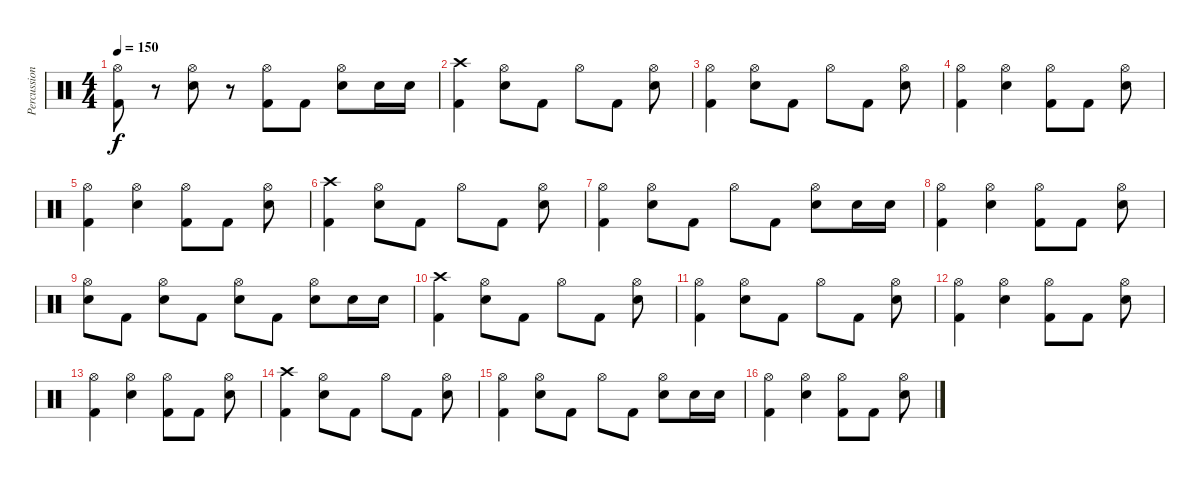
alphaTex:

\track ("Percussion" "Percussion") {instrument percussion}
\staff {score}
\articulation defaults
\ts (4 4)
\tempo 150
\clef neutral
\ks c
("Hi-Hat (open)" "Kick (hit) 2").8{dy f} r.8 ("Hi-Hat (open)" "Electric Snare (hit)").8 r.8 ("Hi-Hat (open)" "Kick (hit) 2").8 "Kick (hit) 2".8 ("Hi-Hat (open)" "Electric Snare (hit)").8 "Electric Snare (hit)".16 "Electric Snare (hit)".16 |
("Crash high (hit)" "Kick (hit) 2").4 ("Hi-Hat (open)" "Electric Snare (hit)").8 "Kick (hit) 2".8 "Hi-Hat (open)".8 "Kick (hit) 2".8 ("Hi-Hat (open)" "Electric Snare (hit)").8 |
("Hi-Hat (open)" "Kick (hit) 2").4 ("Hi-Hat (open)" "Electric Snare (hit)").8 "Kick (hit) 2".8 "Hi-Hat (open)".8 "Kick (hit) 2".8 ("Hi-Hat (open)" "Electric Snare (hit)").8 |
("Hi-Hat (open)" "Kick (hit) 2").4 ("Hi-Hat (open)" "Electric Snare (hit)").4 ("Hi-Hat (open)" "Kick (hit) 2").8 "Kick (hit) 2".8 ("Hi-Hat (open)" "Electric Snare (hit)").8 |
("Hi-Hat (open)" "Kick (hit) 2").4 ("Hi-Hat (open)" "Electric Snare (hit)").4 ("Hi-Hat (open)" "Kick (hit) 2").8 "Kick (hit) 2".8 ("Hi-Hat (open)" "Electric Snare (hit)").8 |
("Crash high (hit)" "Kick (hit) 2").4 ("Hi-Hat (open)" "Electric Snare (hit)").8 "Kick (hit) 2".8 "Hi-Hat (open)".8 "Kick (hit) 2".8 ("Hi-Hat (open)" "Electric Snare (hit)").8 |
("Hi-Hat (open)" "Kick (hit) 2").4 ("Hi-Hat (open)" "Electric Snare (hit)").8 "Kick (hit) 2".8 "Hi-Hat (open)".8 "Kick (hit) 2".8 ("Hi-Hat (open)" "Electric Snare (hit)").8 "Electric Snare (hit)".16 "Electric Snare (hit)".16 |
("Hi-Hat (open)" "Kick (hit) 2").4 ("Hi-Hat (open)" "Electric Snare (hit)").4 ("Hi-Hat (open)" "Kick (hit) 2").8 "Kick (hit) 2".8 ("Hi-Hat (open)" "Electric Snare (hit)").8 |
("Hi-Hat (open)" "Electric Snare (hit)").8 "Kick (hit) 2".8 ("Hi-Hat (open)" "Electric Snare (hit)").8 "Kick (hit) 2".8 ("Hi-Hat (open)" "Electric Snare (hit)").8 "Kick (hit) 2".8 ("Hi-Hat (open)" "Electric Snare (hit)").8 "Electric Snare (hit)".16 "Electric Snare (hit)".16 |
("Crash high (hit)" "Kick (hit) 2").4 ("Hi-Hat (open)" "Electric Snare (hit)").8 "Kick (hit) 2".8 "Hi-Hat (open)".8 "Kick (hit) 2".8 ("Hi-Hat (open)" "Electric Snare (hit)").8 |
("Hi-Hat (open)" "Kick (hit) 2").4 ("Hi-Hat (open)" "Electric Snare (hit)").8 "Kick (hit) 2".8 "Hi-Hat (open)".8 "Kick (hit) 2".8 ("Hi-Hat (open)" "Electric Snare (hit)").8 |
("Hi-Hat (open)" "Kick (hit) 2").4 ("Hi-Hat (open)" "Electric Snare (hit)").4 ("Hi-Hat (open)" "Kick (hit) 2").8 "Kick (hit) 2".8 ("Hi-Hat (open)" "Electric Snare (hit)").8 |
("Hi-Hat (open)" "Kick (hit) 2").4 ("Hi-Hat (open)" "Electric Snare (hit)").4 ("Hi-Hat (open)" "Kick (hit) 2").8 "Kick (hit) 2".8 ("Hi-Hat (open)" "Electric Snare (hit)").8 |
("Crash high (hit)" "Kick (hit) 2").4 ("Hi-Hat (open)" "Electric Snare (hit)").8 "Kick (hit) 2".8 "Hi-Hat (open)".8 "Kick (hit) 2".8 ("Hi-Hat (open)" "Electric Snare (hit)").8 |
("Hi-Hat (open)" "Kick (hit) 2").4 ("Hi-Hat (open)" "Electric Snare (hit)").8 "Kick (hit) 2".8 "Hi-Hat (open)".8 "Kick (hit) 2".8 ("Hi-Hat (open)" "Electric Snare (hit)").8 "Electric Snare (hit)".16 "Electric Snare (hit)".16 |
("Hi-Hat (open)" "Kick (hit) 2").4 ("Hi-Hat (open)" "Electric Snare (hit)").4 ("Hi-Hat (open)" "Kick (hit) 2").8 "Kick (hit) 2".8 ("Hi-Hat (open)" "Electric Snare (hit)").8
